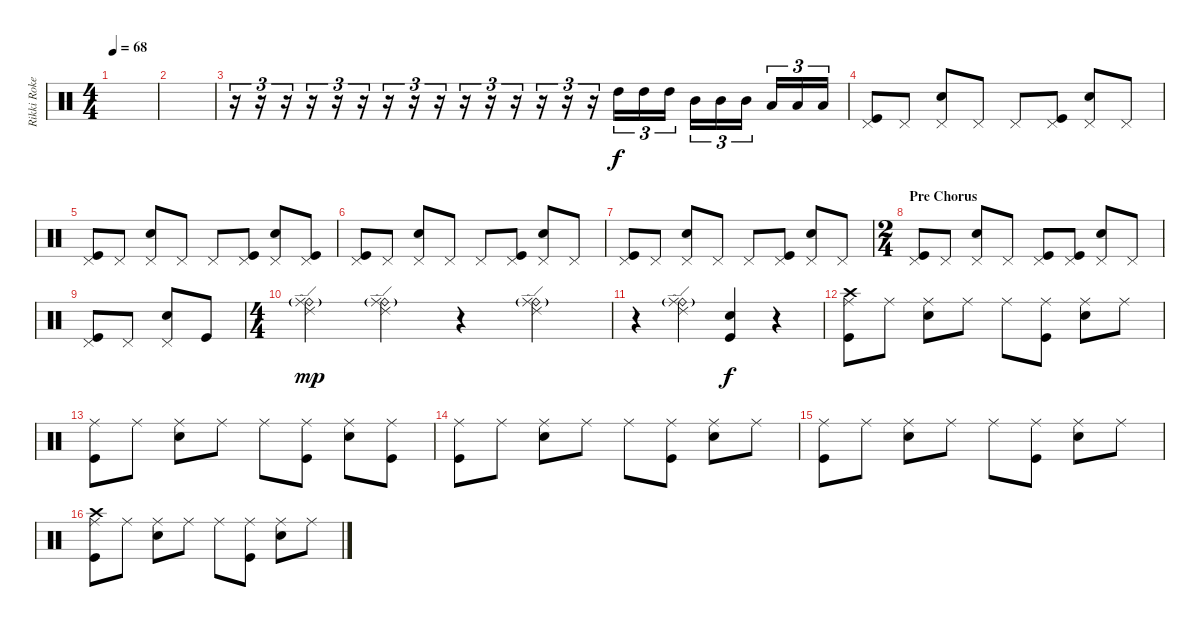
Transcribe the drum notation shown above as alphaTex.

\track ("Rikki Rokett" "Rikki Roke") {instrument percussion}
\staff {score}
\articulation defaults
\ts (4 4)
\tempo 68
\clef neutral
\ks c
|
|
r.16{tu (3 2)} r.16{tu (3 2)} r.16{tu (3 2)} r.16{tu (3 2)} r.16{tu (3 2)} r.16{tu (3 2)} r.16{tu (3 2)} r.16{tu (3 2)} r.16{tu (3 2)} r.16{tu (3 2)} r.16{tu (3 2)} r.16{tu (3 2)} r.16{tu (3 2)} r.16{tu (3 2)} r.16{tu (3 2)} "High Tom (hit)".16{tu (3 2) dy f} "High Tom (hit)".16{tu (3 2)} "High Tom (hit)".16{tu (3 2)} "Mid Tom (hit)".16{tu (3 2)} "Mid Tom (hit)".16{tu (3 2)} "Mid Tom (hit)".16{tu (3 2)} "Low Tom (hit)".16{tu (3 2)} "Low Tom (hit)".16{tu (3 2)} "Low Tom (hit)".16{tu (3 2)} |
("Pedal Hi-Hat (hit)" "Kick (hit)").8 "Pedal Hi-Hat (hit)".8 ("Pedal Hi-Hat (hit)" "Snare (hit) 2").8 "Pedal Hi-Hat (hit)".8 "Pedal Hi-Hat (hit)".8 ("Pedal Hi-Hat (hit)" "Kick (hit)").8 ("Pedal Hi-Hat (hit)" "Snare (hit) 2").8 "Pedal Hi-Hat (hit)".8 |
("Pedal Hi-Hat (hit)" "Kick (hit)").8 "Pedal Hi-Hat (hit)".8 ("Pedal Hi-Hat (hit)" "Snare (hit) 2").8 "Pedal Hi-Hat (hit)".8 "Pedal Hi-Hat (hit)".8 ("Pedal Hi-Hat (hit)" "Kick (hit)").8 ("Pedal Hi-Hat (hit)" "Snare (hit) 2").8 ("Pedal Hi-Hat (hit)" "Kick (hit)").8 |
("Pedal Hi-Hat (hit)" "Kick (hit)").8 "Pedal Hi-Hat (hit)".8 ("Pedal Hi-Hat (hit)" "Snare (hit) 2").8 "Pedal Hi-Hat (hit)".8 "Pedal Hi-Hat (hit)".8 ("Pedal Hi-Hat (hit)" "Kick (hit)").8 ("Pedal Hi-Hat (hit)" "Snare (hit) 2").8 "Pedal Hi-Hat (hit)".8 |
("Pedal Hi-Hat (hit)" "Kick (hit)").8 "Pedal Hi-Hat (hit)".8 ("Pedal Hi-Hat (hit)" "Snare (hit) 2").8 "Pedal Hi-Hat (hit)".8 "Pedal Hi-Hat (hit)".8 ("Pedal Hi-Hat (hit)" "Kick (hit)").8 ("Pedal Hi-Hat (hit)" "Snare (hit) 2").8 "Pedal Hi-Hat (hit)".8 |
\ts (2 4)
\section ("" "Pre Chorus")
("Pedal Hi-Hat (hit)" "Kick (hit)").8 "Pedal Hi-Hat (hit)".8 ("Pedal Hi-Hat (hit)" "Snare (hit) 2").8 "Pedal Hi-Hat (hit)".8 ("Pedal Hi-Hat (hit)" "Kick (hit)").8 ("Pedal Hi-Hat (hit)" "Kick (hit)").8 ("Pedal Hi-Hat (hit)" "Snare (hit) 2").8 "Pedal Hi-Hat (hit)".8 |
("Pedal Hi-Hat (hit)" "Kick (hit)").8 "Pedal Hi-Hat (hit)".8 ("Pedal Hi-Hat (hit)" "Snare (hit) 2").8 "Kick (hit)".8 |
\ts (4 4)
("Ride (bell)"{g} "Ride (edge) 2" "Ride (middle)").4{dy mp} ("Ride (bell)"{g} "Ride (edge) 2" "Ride (middle)").4 r.4 ("Ride (bell)"{g} "Ride (edge) 2" "Ride (middle)").4 |
r.4 ("Ride (bell)"{g} "Ride (edge) 2" "Ride (middle)").4 ("Snare (hit) 2" "Kick (hit)").4{dy f} r.4 |
("Ride (middle)" "Crash high (hit)" "Kick (hit)").8 "Ride (middle)".8 ("Ride (middle)" "Snare (hit) 2").8 "Ride (middle)".8 "Ride (middle)".8 ("Ride (middle)" "Kick (hit)").8 ("Ride (middle)" "Snare (hit) 2").8 "Ride (middle)".8 |
("Ride (middle)" "Kick (hit)").8 "Ride (middle)".8 ("Ride (middle)" "Snare (hit) 2").8 "Ride (middle)".8 "Ride (middle)".8 ("Ride (middle)" "Kick (hit)").8 ("Ride (middle)" "Snare (hit) 2").8 ("Ride (middle)" "Kick (hit)").8 |
("Ride (middle)" "Kick (hit)").8 "Ride (middle)".8 ("Ride (middle)" "Snare (hit) 2").8 "Ride (middle)".8 "Ride (middle)".8 ("Ride (middle)" "Kick (hit)").8 ("Ride (middle)" "Snare (hit) 2").8 "Ride (middle)".8 |
("Ride (middle)" "Kick (hit)").8 "Ride (middle)".8 ("Ride (middle)" "Snare (hit) 2").8 "Ride (middle)".8 "Ride (middle)".8 ("Ride (middle)" "Kick (hit)").8 ("Ride (middle)" "Snare (hit) 2").8 "Ride (middle)".8 |
("Ride (middle)" "Crash high (hit)" "Kick (hit)").8 "Ride (middle)".8 ("Ride (middle)" "Snare (hit) 2").8 "Ride (middle)".8 "Ride (middle)".8 ("Ride (middle)" "Kick (hit)").8 ("Ride (middle)" "Snare (hit) 2").8 "Ride (middle)".8
